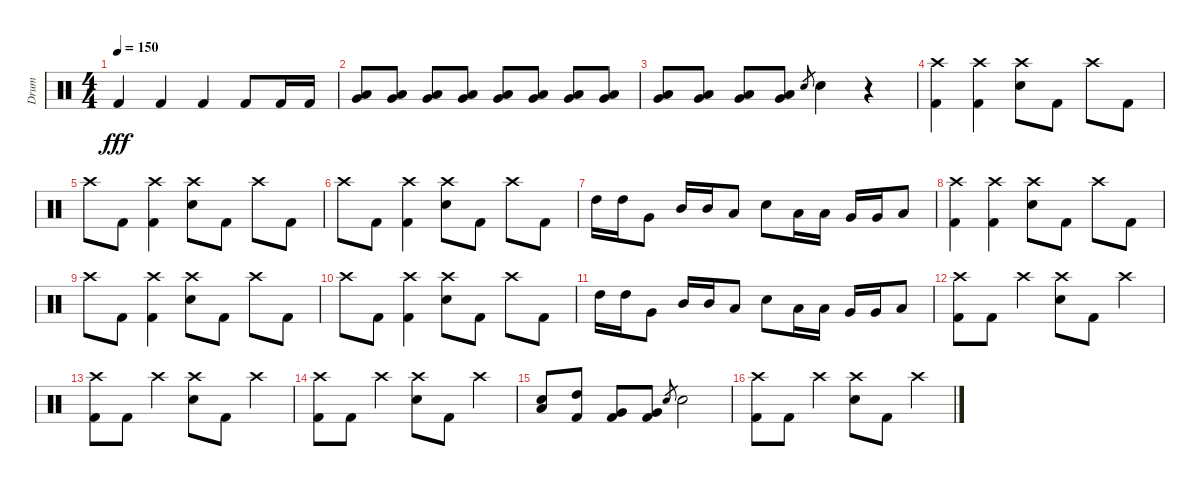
\track ("Drum" "Drum") {instrument percussion}
\staff {score}
\articulation defaults
\ts (4 4)
\tempo 150
\clef neutral
\ks c "Kick (hit) 2".4{dy fff} "Kick (hit) 2".4 "Kick (hit) 2".4 "Kick (hit) 2".8 "Kick (hit) 2".16 "Kick (hit) 2".16
|
("Very Low Tom (hit)" "Low Floor Tom (hit)").8 ("Very Low Tom (hit)" "Low Floor Tom (hit)").8 ("Very Low Tom (hit)" "Low Floor Tom (hit)").8 ("Very Low Tom (hit)" "Low Floor Tom (hit)").8 ("Very Low Tom (hit)" "Low Floor Tom (hit)").8 ("Very Low Tom (hit)" "Low Floor Tom (hit)").8 ("Very Low Tom (hit)" "Low Floor Tom (hit)").8 ("Very Low Tom (hit)" "Low Floor Tom (hit)").8 |
("Very Low Tom (hit)" "Low Floor Tom (hit)").8 ("Very Low Tom (hit)" "Low Floor Tom (hit)").8 ("Very Low Tom (hit)" "Low Floor Tom (hit)").8 ("Very Low Tom (hit)" "Low Floor Tom (hit)").8 "Electric Snare (hit)".8{gr} "Electric Snare (hit)".4 r.4 |
("Crash high (hit)" "Kick (hit) 2").4 ("Crash high (hit)" "Kick (hit) 2").4 ("Crash high (hit)" "Electric Snare (hit)").8 "Kick (hit) 2".8 "Crash high (hit)".8 "Kick (hit) 2".8 |
"Crash high (hit)".8 "Kick (hit) 2".8 ("Crash high (hit)" "Kick (hit) 2").4 ("Crash high (hit)" "Electric Snare (hit)").8 "Kick (hit) 2".8 "Crash high (hit)".8 "Kick (hit) 2".8 |
"Crash high (hit)".8 "Kick (hit) 2".8 ("Crash high (hit)" "Kick (hit) 2").4 ("Crash high (hit)" "Electric Snare (hit)").8 "Kick (hit) 2".8 "Crash high (hit)".8 "Kick (hit) 2".8 |
"High Tom (hit)".16 "High Tom (hit)".16 "Very Low Tom (hit)".8 "Mid Tom (hit)".16 "Mid Tom (hit)".16 "Low Tom (hit)".8 "Electric Snare (hit)".8 "Low Tom (hit)".16 "Low Tom (hit)".16 "Very Low Tom (hit)".16 "Very Low Tom (hit)".16 "Low Floor Tom (hit)".8 |
("Crash high (hit)" "Kick (hit) 2").4 ("Crash high (hit)" "Kick (hit) 2").4 ("Crash high (hit)" "Electric Snare (hit)").8 "Kick (hit) 2".8 "Crash high (hit)".8 "Kick (hit) 2".8 |
"Crash high (hit)".8 "Kick (hit) 2".8 ("Crash high (hit)" "Kick (hit) 2").4 ("Crash high (hit)" "Electric Snare (hit)").8 "Kick (hit) 2".8 "Crash high (hit)".8 "Kick (hit) 2".8 |
"Crash high (hit)".8 "Kick (hit) 2".8 ("Crash high (hit)" "Kick (hit) 2").4 ("Crash high (hit)" "Electric Snare (hit)").8 "Kick (hit) 2".8 "Crash high (hit)".8 "Kick (hit) 2".8 |
"High Tom (hit)".16 "High Tom (hit)".16 "Very Low Tom (hit)".8 "Mid Tom (hit)".16 "Mid Tom (hit)".16 "Low Tom (hit)".8 "Electric Snare (hit)".8 "Low Tom (hit)".16 "Low Tom (hit)".16 "Very Low Tom (hit)".16 "Very Low Tom (hit)".16 "Low Floor Tom (hit)".8 |
("Crash high (hit)" "Kick (hit) 2").8 "Kick (hit) 2".8 "Crash high (hit)".4 ("Crash high (hit)" "Electric Snare (hit)").8 "Kick (hit) 2".8 "Crash high (hit)".4 |
("Crash high (hit)" "Kick (hit) 2").8 "Kick (hit) 2".8 "Crash high (hit)".4 ("Crash high (hit)" "Electric Snare (hit)").8 "Kick (hit) 2".8 "Crash high (hit)".4 |
("Crash high (hit)" "Kick (hit) 2").8 "Kick (hit) 2".8 "Crash high (hit)".4 ("Crash high (hit)" "Electric Snare (hit)").8 "Kick (hit) 2".8 "Crash high (hit)".4 |
("Electric Snare (hit)" "Low Floor Tom (hit)").8 ("High Tom (hit)" "Kick (hit) 2").8 ("Very Low Tom (hit)" "Kick (hit) 2").8 ("Very Low Tom (hit)" "Kick (hit) 2").8 "Electric Snare (hit)".8{gr} "Electric Snare (hit)".2 |
("Crash high (hit)" "Kick (hit) 2").8 "Kick (hit) 2".8 "Crash high (hit)".4 ("Crash high (hit)" "Electric Snare (hit)").8 "Kick (hit) 2".8 "Crash high (hit)".4
